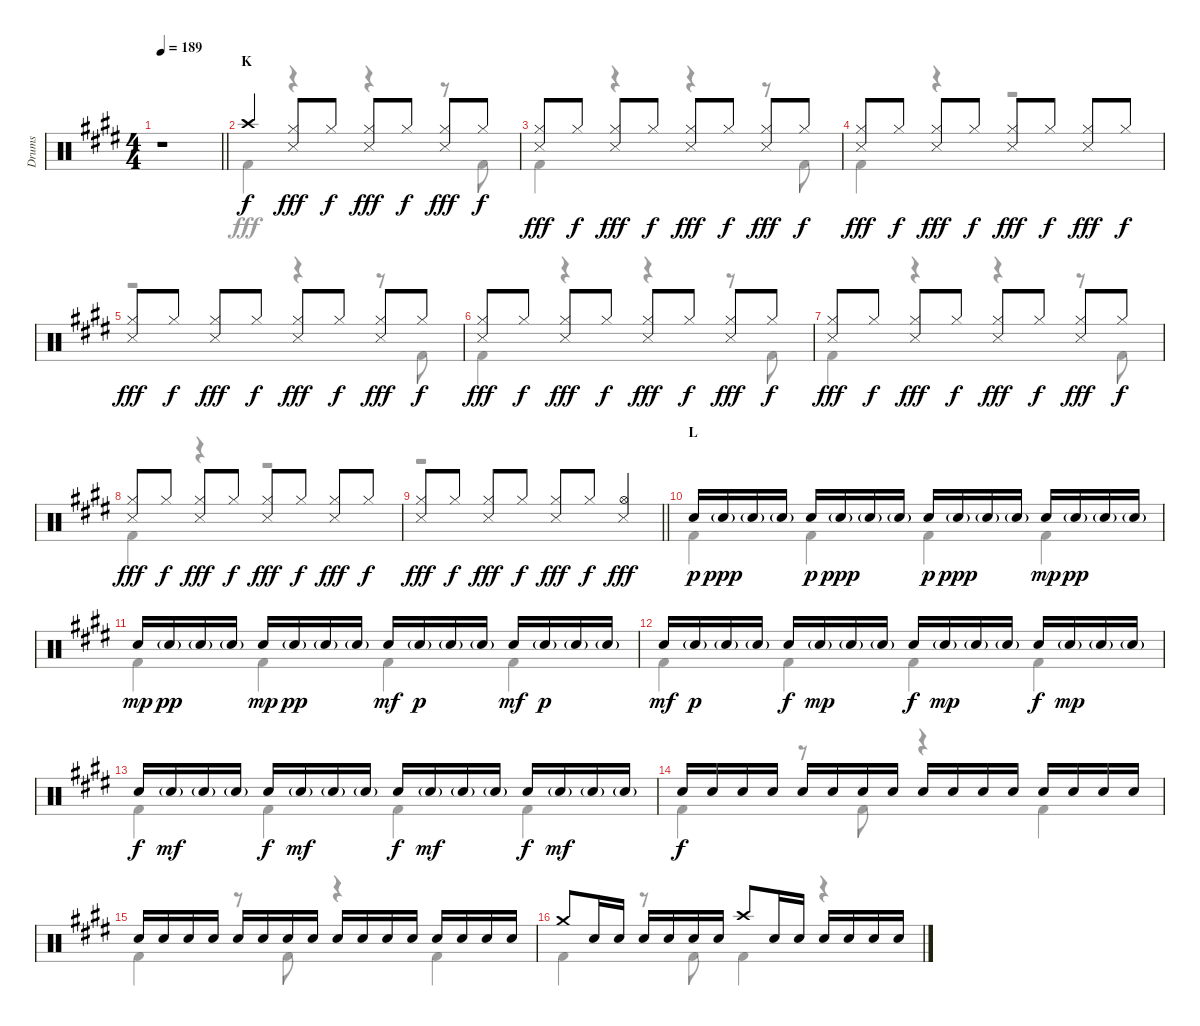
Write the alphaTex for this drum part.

\track ("Drums" "Drums") {instrument percussion}
\staff {score}
\articulation defaults
\voice
\ts (4 4)
\tempo 189
\clef neutral
\barLineRight lightlight
\ks e
r.1{dy f} |
\section ("" "K")
"Crash high (hit)".4 ("Hi-Hat (closed)" "Snare (side stick) 3").8{dy fff} "Hi-Hat (closed)".8{dy f} ("Hi-Hat (closed)" "Snare (side stick) 3").8{dy fff} "Hi-Hat (closed)".8{dy f} ("Hi-Hat (closed)" "Snare (side stick) 3").8{dy fff} "Hi-Hat (closed)".8{dy f} |
("Hi-Hat (closed)" "Snare (side stick) 3").8{dy fff} "Hi-Hat (closed)".8{dy f} ("Hi-Hat (closed)" "Snare (side stick) 3").8{dy fff} "Hi-Hat (closed)".8{dy f} ("Hi-Hat (closed)" "Snare (side stick) 3").8{dy fff} "Hi-Hat (closed)".8{dy f} ("Hi-Hat (closed)" "Snare (side stick) 3").8{dy fff} "Hi-Hat (closed)".8{dy f} |
("Hi-Hat (closed)" "Snare (side stick) 3").8{dy fff} "Hi-Hat (closed)".8{dy f} ("Hi-Hat (closed)" "Snare (side stick) 3").8{dy fff} "Hi-Hat (closed)".8{dy f} ("Hi-Hat (closed)" "Snare (side stick) 3").8{dy fff} "Hi-Hat (closed)".8{dy f} ("Hi-Hat (closed)" "Snare (side stick) 3").8{dy fff} "Hi-Hat (closed)".8{dy f} |
("Hi-Hat (closed)" "Snare (side stick) 3").8{dy fff} "Hi-Hat (closed)".8{dy f} ("Hi-Hat (closed)" "Snare (side stick) 3").8{dy fff} "Hi-Hat (closed)".8{dy f} ("Hi-Hat (closed)" "Snare (side stick) 3").8{dy fff} "Hi-Hat (closed)".8{dy f} ("Hi-Hat (closed)" "Snare (side stick) 3").8{dy fff} "Hi-Hat (closed)".8{dy f} |
("Hi-Hat (closed)" "Snare (side stick) 3").8{dy fff} "Hi-Hat (closed)".8{dy f} ("Hi-Hat (closed)" "Snare (side stick) 3").8{dy fff} "Hi-Hat (closed)".8{dy f} ("Hi-Hat (closed)" "Snare (side stick) 3").8{dy fff} "Hi-Hat (closed)".8{dy f} ("Hi-Hat (closed)" "Snare (side stick) 3").8{dy fff} "Hi-Hat (closed)".8{dy f} |
("Hi-Hat (closed)" "Snare (side stick) 3").8{dy fff} "Hi-Hat (closed)".8{dy f} ("Hi-Hat (closed)" "Snare (side stick) 3").8{dy fff} "Hi-Hat (closed)".8{dy f} ("Hi-Hat (closed)" "Snare (side stick) 3").8{dy fff} "Hi-Hat (closed)".8{dy f} ("Hi-Hat (closed)" "Snare (side stick) 3").8{dy fff} "Hi-Hat (closed)".8{dy f} |
("Hi-Hat (closed)" "Snare (side stick) 3").8{dy fff} "Hi-Hat (closed)".8{dy f} ("Hi-Hat (closed)" "Snare (side stick) 3").8{dy fff} "Hi-Hat (closed)".8{dy f} ("Hi-Hat (closed)" "Snare (side stick) 3").8{dy fff} "Hi-Hat (closed)".8{dy f} ("Hi-Hat (closed)" "Snare (side stick) 3").8{dy fff} "Hi-Hat (closed)".8{dy f} |
\barLineRight lightlight
("Hi-Hat (closed)" "Snare (side stick) 3").8{dy fff} "Hi-Hat (closed)".8{dy f} ("Hi-Hat (closed)" "Snare (side stick) 3").8{dy fff} "Hi-Hat (closed)".8{dy f} ("Hi-Hat (closed)" "Snare (side stick) 3").8{dy fff} "Hi-Hat (closed)".8{dy f} ("Hi-Hat (open)" "Snare (side stick) 3").4{dy fff} |
\section ("" "L")
"Snare (hit) 2".16{dy p} "Snare (hit) 2"{g}.16{dy ppp} "Snare (hit) 2"{g}.16 "Snare (hit) 2"{g}.16 "Snare (hit) 2".16{dy p} "Snare (hit) 2"{g}.16{dy ppp} "Snare (hit) 2"{g}.16 "Snare (hit) 2"{g}.16 "Snare (hit) 2".16{dy p} "Snare (hit) 2"{g}.16{dy ppp} "Snare (hit) 2"{g}.16 "Snare (hit) 2"{g}.16 "Snare (hit) 2".16{dy mp} "Snare (hit) 2"{g}.16{dy pp} "Snare (hit) 2"{g}.16 "Snare (hit) 2"{g}.16 |
"Snare (hit) 2".16{dy mp} "Snare (hit) 2"{g}.16{dy pp} "Snare (hit) 2"{g}.16 "Snare (hit) 2"{g}.16 "Snare (hit) 2".16{dy mp} "Snare (hit) 2"{g}.16{dy pp} "Snare (hit) 2"{g}.16 "Snare (hit) 2"{g}.16 "Snare (hit) 2".16{dy mf} "Snare (hit) 2"{g}.16{dy p} "Snare (hit) 2"{g}.16 "Snare (hit) 2"{g}.16 "Snare (hit) 2".16{dy mf} "Snare (hit) 2"{g}.16{dy p} "Snare (hit) 2"{g}.16 "Snare (hit) 2"{g}.16 |
"Snare (hit) 2".16{dy mf} "Snare (hit) 2"{g}.16{dy p} "Snare (hit) 2"{g}.16 "Snare (hit) 2"{g}.16 "Snare (hit) 2".16{dy f} "Snare (hit) 2"{g}.16{dy mp} "Snare (hit) 2"{g}.16 "Snare (hit) 2"{g}.16 "Snare (hit) 2".16{dy f} "Snare (hit) 2"{g}.16{dy mp} "Snare (hit) 2"{g}.16 "Snare (hit) 2"{g}.16 "Snare (hit) 2".16{dy f} "Snare (hit) 2"{g}.16{dy mp} "Snare (hit) 2"{g}.16 "Snare (hit) 2"{g}.16 |
"Snare (hit) 2".16{dy f} "Snare (hit) 2"{g}.16{dy mf} "Snare (hit) 2"{g}.16 "Snare (hit) 2"{g}.16 "Snare (hit) 2".16{dy f} "Snare (hit) 2"{g}.16{dy mf} "Snare (hit) 2"{g}.16 "Snare (hit) 2"{g}.16 "Snare (hit) 2".16{dy f} "Snare (hit) 2"{g}.16{dy mf} "Snare (hit) 2"{g}.16 "Snare (hit) 2"{g}.16 "Snare (hit) 2".16{dy f} "Snare (hit) 2"{g}.16{dy mf} "Snare (hit) 2"{g}.16 "Snare (hit) 2"{g}.16 |
"Snare (hit) 2".16{dy f} "Snare (hit) 2".16 "Snare (hit) 2".16 "Snare (hit) 2".16 "Snare (hit) 2".16 "Snare (hit) 2".16 "Snare (hit) 2".16 "Snare (hit) 2".16 "Snare (hit) 2".16 "Snare (hit) 2".16 "Snare (hit) 2".16 "Snare (hit) 2".16 "Snare (hit) 2".16 "Snare (hit) 2".16 "Snare (hit) 2".16 "Snare (hit) 2".16 |
"Snare (hit) 2".16 "Snare (hit) 2".16 "Snare (hit) 2".16 "Snare (hit) 2".16 "Snare (hit) 2".16 "Snare (hit) 2".16 "Snare (hit) 2".16 "Snare (hit) 2".16 "Snare (hit) 2".16 "Snare (hit) 2".16 "Snare (hit) 2".16 "Snare (hit) 2".16 "Snare (hit) 2".16 "Snare (hit) 2".16 "Snare (hit) 2".16 "Snare (hit) 2".16 |
"Crash medium (hit)".8 "Snare (hit) 2".16 "Snare (hit) 2".16 "Snare (hit) 2".16 "Snare (hit) 2".16 "Snare (hit) 2".16 "Snare (hit) 2".16 "Crash high (hit)".8 "Snare (hit) 2".16 "Snare (hit) 2".16 "Snare (hit) 2".16 "Snare (hit) 2".16 "Snare (hit) 2".16 "Snare (hit) 2".16
\voice
\clef neutral
\ottava regular
\simile none
\barLineRight lightlight
\ks e
r.1{dy fff} |
"Kick (hit) 2".4 r.4 r.4 r.8 "Kick (hit) 2".8 |
"Kick (hit) 2".4 r.4 r.4 r.8 "Kick (hit) 2".8 |
"Kick (hit) 2".4 r.4 r.2 |
r.2 r.4 r.8 "Kick (hit) 2".8 |
"Kick (hit) 2".4 r.4 r.4 r.8 "Kick (hit) 2".8 |
"Kick (hit) 2".4 r.4 r.4 r.8 "Kick (hit) 2".8 |
"Kick (hit) 2".4 r.4 r.2 |
\barLineRight lightlight
r.1 |
"Kick (hit) 2".4 "Kick (hit) 2".4 "Kick (hit) 2".4 "Kick (hit) 2".4 |
"Kick (hit) 2".4 "Kick (hit) 2".4 "Kick (hit) 2".4 "Kick (hit) 2".4 |
"Kick (hit) 2".4 "Kick (hit) 2".4 "Kick (hit) 2".4 "Kick (hit) 2".4 |
"Kick (hit) 2".4 "Kick (hit) 2".4 "Kick (hit) 2".4 "Kick (hit) 2".4 |
"Kick (hit) 2".4 r.8 "Kick (hit) 2".8 r.4 "Kick (hit) 2".4 |
"Kick (hit) 2".4 r.8 "Kick (hit) 2".8 r.4 "Kick (hit) 2".4 |
"Kick (hit) 2".4 r.8 "Kick (hit) 2".8 "Kick (hit) 2".4 r.4
